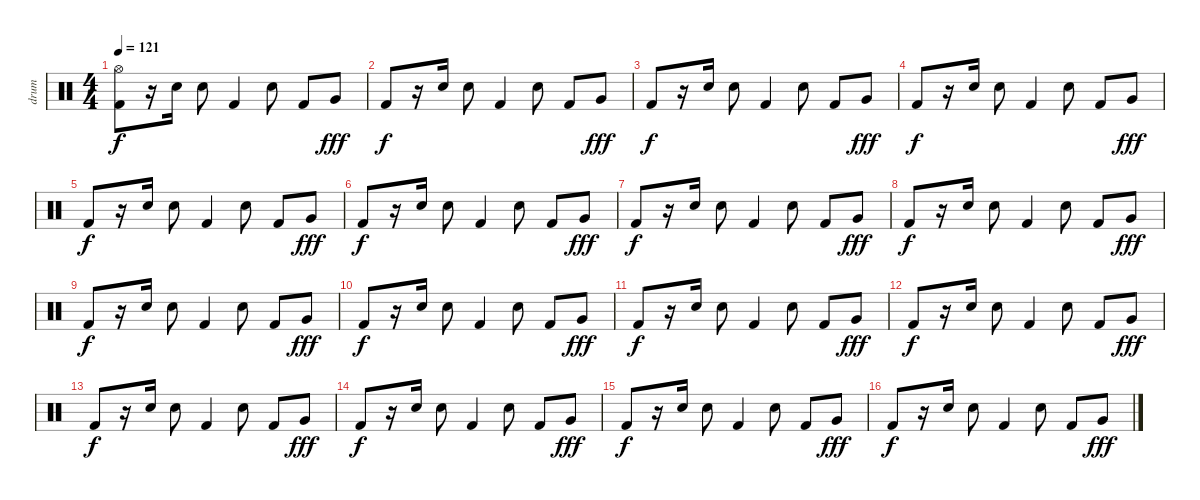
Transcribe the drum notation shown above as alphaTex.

\track ("drum" "drum") {instrument percussion}
\staff {score}
\articulation defaults
\ts (4 4)
\tempo 121
\clef neutral
\ks c
("Hi-Hat (open)" "Kick (hit) 2").8{dy f} r.16 "Electric Snare (hit)".16 "Electric Snare (hit)".8 "Kick (hit) 2".4 "Electric Snare (hit)".8 "Kick (hit) 2".8 "Very Low Tom (hit)".8{dy fff} |
"Kick (hit) 2".8{dy f} r.16 "Electric Snare (hit)".16 "Electric Snare (hit)".8 "Kick (hit) 2".4 "Electric Snare (hit)".8 "Kick (hit) 2".8 "Very Low Tom (hit)".8{dy fff} |
"Kick (hit) 2".8{dy f} r.16 "Electric Snare (hit)".16 "Electric Snare (hit)".8 "Kick (hit) 2".4 "Electric Snare (hit)".8 "Kick (hit) 2".8 "Very Low Tom (hit)".8{dy fff} |
"Kick (hit) 2".8{dy f} r.16 "Electric Snare (hit)".16 "Electric Snare (hit)".8 "Kick (hit) 2".4 "Electric Snare (hit)".8 "Kick (hit) 2".8 "Very Low Tom (hit)".8{dy fff} |
"Kick (hit) 2".8{dy f} r.16 "Electric Snare (hit)".16 "Electric Snare (hit)".8 "Kick (hit) 2".4 "Electric Snare (hit)".8 "Kick (hit) 2".8 "Very Low Tom (hit)".8{dy fff} |
"Kick (hit) 2".8{dy f} r.16 "Electric Snare (hit)".16 "Electric Snare (hit)".8 "Kick (hit) 2".4 "Electric Snare (hit)".8 "Kick (hit) 2".8 "Very Low Tom (hit)".8{dy fff} |
"Kick (hit) 2".8{dy f} r.16 "Electric Snare (hit)".16 "Electric Snare (hit)".8 "Kick (hit) 2".4 "Electric Snare (hit)".8 "Kick (hit) 2".8 "Very Low Tom (hit)".8{dy fff} |
"Kick (hit) 2".8{dy f} r.16 "Electric Snare (hit)".16 "Electric Snare (hit)".8 "Kick (hit) 2".4 "Electric Snare (hit)".8 "Kick (hit) 2".8 "Very Low Tom (hit)".8{dy fff} |
"Kick (hit) 2".8{dy f} r.16 "Electric Snare (hit)".16 "Electric Snare (hit)".8 "Kick (hit) 2".4 "Electric Snare (hit)".8 "Kick (hit) 2".8 "Very Low Tom (hit)".8{dy fff} |
"Kick (hit) 2".8{dy f} r.16 "Electric Snare (hit)".16 "Electric Snare (hit)".8 "Kick (hit) 2".4 "Electric Snare (hit)".8 "Kick (hit) 2".8 "Very Low Tom (hit)".8{dy fff} |
"Kick (hit) 2".8{dy f} r.16 "Electric Snare (hit)".16 "Electric Snare (hit)".8 "Kick (hit) 2".4 "Electric Snare (hit)".8 "Kick (hit) 2".8 "Very Low Tom (hit)".8{dy fff} |
"Kick (hit) 2".8{dy f} r.16 "Electric Snare (hit)".16 "Electric Snare (hit)".8 "Kick (hit) 2".4 "Electric Snare (hit)".8 "Kick (hit) 2".8 "Very Low Tom (hit)".8{dy fff} |
"Kick (hit) 2".8{dy f} r.16 "Electric Snare (hit)".16 "Electric Snare (hit)".8 "Kick (hit) 2".4 "Electric Snare (hit)".8 "Kick (hit) 2".8 "Very Low Tom (hit)".8{dy fff} |
"Kick (hit) 2".8{dy f} r.16 "Electric Snare (hit)".16 "Electric Snare (hit)".8 "Kick (hit) 2".4 "Electric Snare (hit)".8 "Kick (hit) 2".8 "Very Low Tom (hit)".8{dy fff} |
"Kick (hit) 2".8{dy f} r.16 "Electric Snare (hit)".16 "Electric Snare (hit)".8 "Kick (hit) 2".4 "Electric Snare (hit)".8 "Kick (hit) 2".8 "Very Low Tom (hit)".8{dy fff} |
"Kick (hit) 2".8{dy f} r.16 "Electric Snare (hit)".16 "Electric Snare (hit)".8 "Kick (hit) 2".4 "Electric Snare (hit)".8 "Kick (hit) 2".8 "Very Low Tom (hit)".8{dy fff}
